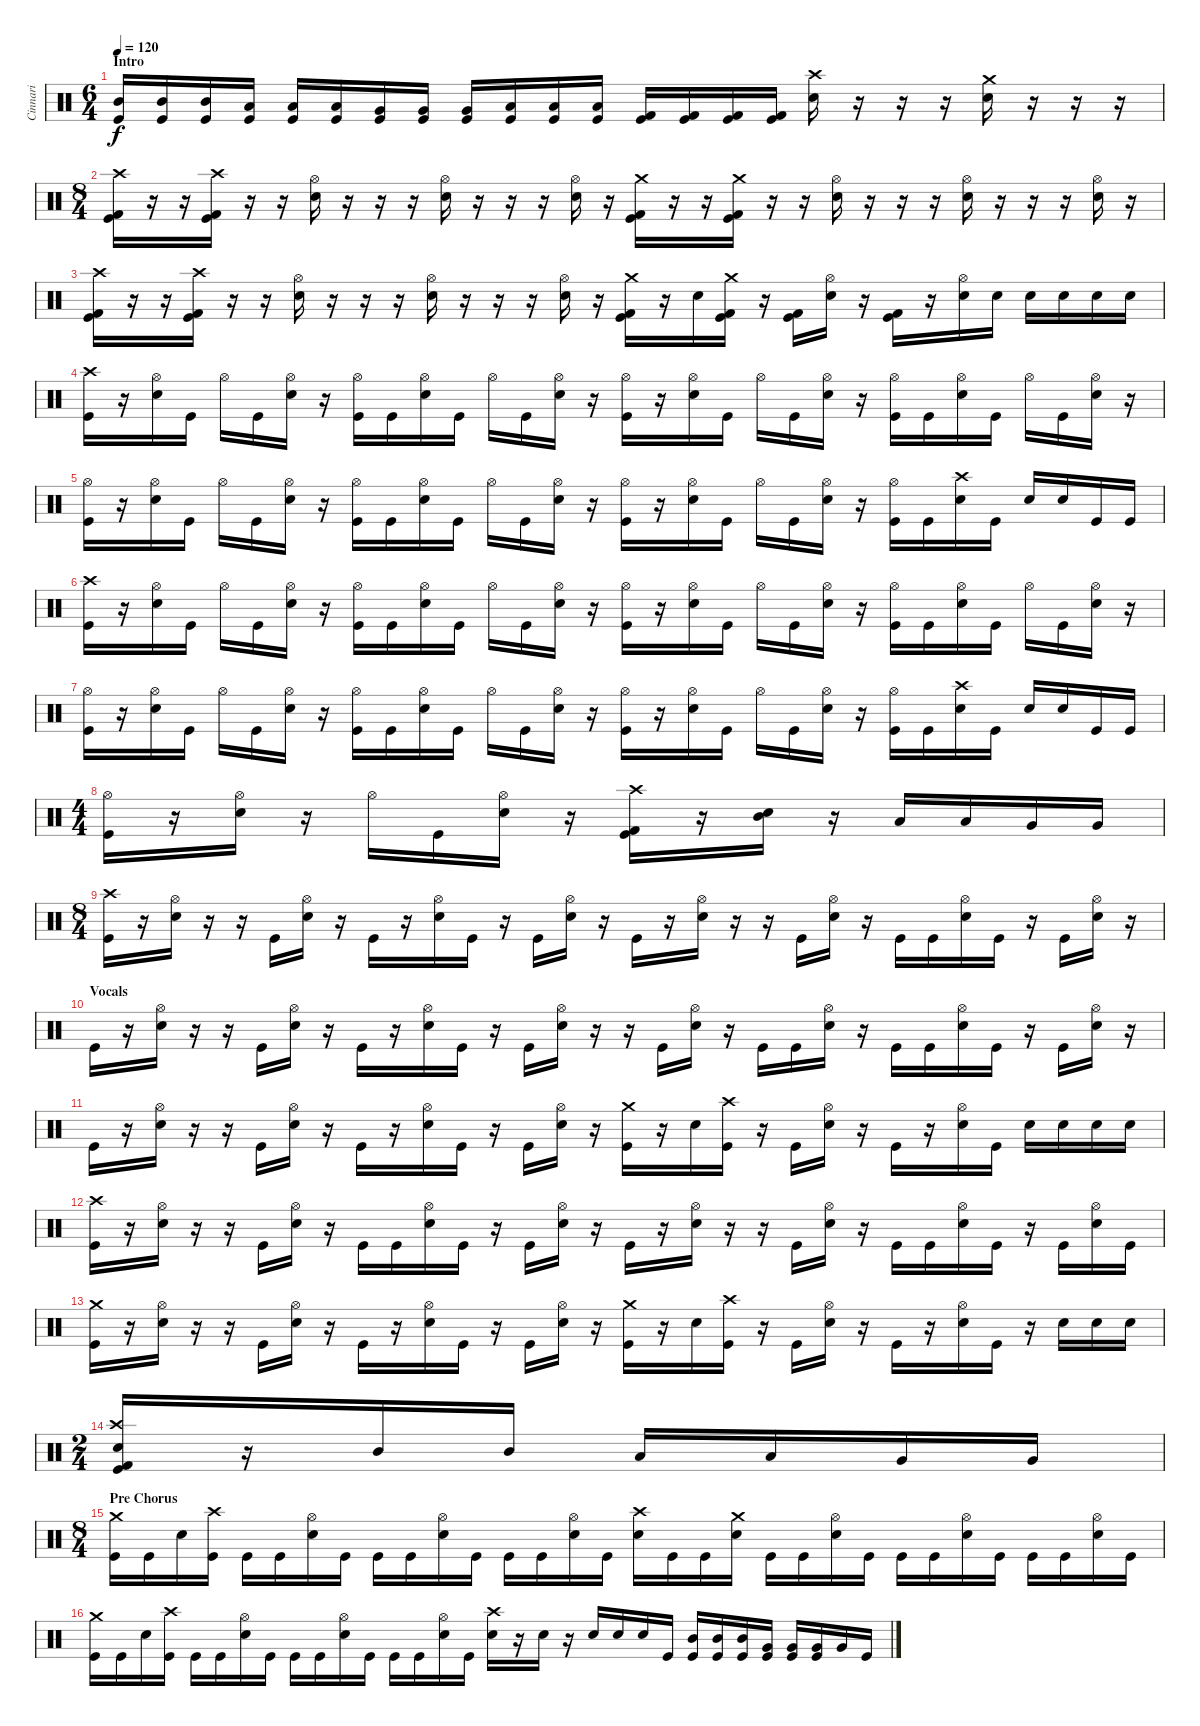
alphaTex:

\track ("Cinnari" "Cinnari") {instrument percussion}
\staff {score}
\articulation defaults
\ts (6 4)
\section ("" "Intro")
\tempo 120
\clef neutral
\ks c
("Mid Tom (hit)" "Kick (hit)").16{dy f} ("Mid Tom (hit)" "Kick (hit)").16 ("Mid Tom (hit)" "Kick (hit)").16 ("Low Tom (hit)" "Kick (hit)").16 ("Low Tom (hit)" "Kick (hit)").16 ("Low Tom (hit)" "Kick (hit)").16 ("Very Low Tom (hit)" "Kick (hit)").16 ("Very Low Tom (hit)" "Kick (hit)").16 ("Very Low Tom (hit)" "Kick (hit)").16 ("Low Floor Tom (hit)" "Kick (hit)").16 ("Low Floor Tom (hit)" "Kick (hit)").16 ("Low Floor Tom (hit)" "Kick (hit)").16 ("Kick (hit) 2" "Kick (hit)").16 ("Kick (hit) 2" "Kick (hit)").16 ("Kick (hit) 2" "Kick (hit)").16 ("Kick (hit) 2" "Kick (hit)").16 ("Crash high (hit)" "Electric Snare (hit)").16 r.16 r.16 r.16 ("Crash medium (hit)" "Electric Snare (hit)").16 r.16 r.16 r.16 |
\ts (8 4)
("Crash high (hit)" "Kick (hit) 2" "Kick (hit)").16 r.16 r.16 ("Crash high (hit)" "Kick (hit) 2" "Kick (hit)").16 r.16 r.16 ("Hi-Hat (open)" "Electric Snare (hit)").16 r.16 r.16 r.16 ("Hi-Hat (open)" "Electric Snare (hit)").16 r.16 r.16 r.16 ("Hi-Hat (open)" "Electric Snare (hit)").16 r.16 ("Crash medium (hit)" "Kick (hit) 2" "Kick (hit)").16 r.16 r.16 ("Crash medium (hit)" "Kick (hit) 2" "Kick (hit)").16 r.16 r.16 ("Hi-Hat (open)" "Electric Snare (hit)").16 r.16 r.16 r.16 ("Hi-Hat (open)" "Electric Snare (hit)").16 r.16 r.16 r.16 ("Hi-Hat (open)" "Electric Snare (hit)").16 r.16 |
("Crash high (hit)" "Kick (hit) 2" "Kick (hit)").16 r.16 r.16 ("Crash high (hit)" "Kick (hit) 2" "Kick (hit)").16 r.16 r.16 ("Hi-Hat (open)" "Electric Snare (hit)").16 r.16 r.16 r.16 ("Hi-Hat (open)" "Electric Snare (hit)").16 r.16 r.16 r.16 ("Hi-Hat (open)" "Electric Snare (hit)").16 r.16 ("Crash medium (hit)" "Kick (hit) 2" "Kick (hit)").16 r.16 "Electric Snare (hit)".16 ("Crash medium (hit)" "Kick (hit) 2" "Kick (hit)").16 r.16 ("Kick (hit) 2" "Kick (hit)").16 ("Hi-Hat (open)" "Electric Snare (hit)").16 r.16 ("Kick (hit) 2" "Kick (hit)").16 r.16 ("Hi-Hat (open)" "Electric Snare (hit)").16 "Electric Snare (hit)".16 "Electric Snare (hit)".16 "Electric Snare (hit)".16 "Electric Snare (hit)".16 "Electric Snare (hit)".16 |
("Crash high (hit)" "Kick (hit)").16 r.16 ("Hi-Hat (open)" "Electric Snare (hit)").16 "Kick (hit)".16 "Hi-Hat (open)".16 "Kick (hit)".16 ("Hi-Hat (open)" "Electric Snare (hit)").16 r.16 ("Hi-Hat (open)" "Kick (hit)").16 "Kick (hit)".16 ("Hi-Hat (open)" "Electric Snare (hit)").16 "Kick (hit)".16 "Hi-Hat (open)".16 "Kick (hit)".16 ("Hi-Hat (open)" "Electric Snare (hit)").16 r.16 ("Hi-Hat (open)" "Kick (hit)").16 r.16 ("Hi-Hat (open)" "Electric Snare (hit)").16 "Kick (hit)".16 "Hi-Hat (open)".16 "Kick (hit)".16 ("Hi-Hat (open)" "Electric Snare (hit)").16 r.16 ("Hi-Hat (open)" "Kick (hit)").16 "Kick (hit)".16 ("Hi-Hat (open)" "Electric Snare (hit)").16 "Kick (hit)".16 "Hi-Hat (open)".16 "Kick (hit)".16 ("Hi-Hat (open)" "Electric Snare (hit)").16 r.16 |
("Hi-Hat (open)" "Kick (hit)").16 r.16 ("Hi-Hat (open)" "Electric Snare (hit)").16 "Kick (hit)".16 "Hi-Hat (open)".16 "Kick (hit)".16 ("Hi-Hat (open)" "Electric Snare (hit)").16 r.16 ("Hi-Hat (open)" "Kick (hit)").16 "Kick (hit)".16 ("Hi-Hat (open)" "Electric Snare (hit)").16 "Kick (hit)".16 "Hi-Hat (open)".16 "Kick (hit)".16 ("Hi-Hat (open)" "Electric Snare (hit)").16 r.16 ("Hi-Hat (open)" "Kick (hit)").16 r.16 ("Hi-Hat (open)" "Electric Snare (hit)").16 "Kick (hit)".16 "Hi-Hat (open)".16 "Kick (hit)".16 ("Hi-Hat (open)" "Electric Snare (hit)").16 r.16 ("Hi-Hat (open)" "Kick (hit)").16 "Kick (hit)".16 ("Crash high (hit)" "Electric Snare (hit)").16 "Kick (hit)".16 "Electric Snare (hit)".16 "Electric Snare (hit)".16 "Kick (hit)".16 "Kick (hit)".16 |
("Crash high (hit)" "Kick (hit)").16 r.16 ("Hi-Hat (open)" "Electric Snare (hit)").16 "Kick (hit)".16 "Hi-Hat (open)".16 "Kick (hit)".16 ("Hi-Hat (open)" "Electric Snare (hit)").16 r.16 ("Hi-Hat (open)" "Kick (hit)").16 "Kick (hit)".16 ("Hi-Hat (open)" "Electric Snare (hit)").16 "Kick (hit)".16 "Hi-Hat (open)".16 "Kick (hit)".16 ("Hi-Hat (open)" "Electric Snare (hit)").16 r.16 ("Hi-Hat (open)" "Kick (hit)").16 r.16 ("Hi-Hat (open)" "Electric Snare (hit)").16 "Kick (hit)".16 "Hi-Hat (open)".16 "Kick (hit)".16 ("Hi-Hat (open)" "Electric Snare (hit)").16 r.16 ("Hi-Hat (open)" "Kick (hit)").16 "Kick (hit)".16 ("Hi-Hat (open)" "Electric Snare (hit)").16 "Kick (hit)".16 "Hi-Hat (open)".16 "Kick (hit)".16 ("Hi-Hat (open)" "Electric Snare (hit)").16 r.16 |
("Hi-Hat (open)" "Kick (hit)").16 r.16 ("Hi-Hat (open)" "Electric Snare (hit)").16 "Kick (hit)".16 "Hi-Hat (open)".16 "Kick (hit)".16 ("Hi-Hat (open)" "Electric Snare (hit)").16 r.16 ("Hi-Hat (open)" "Kick (hit)").16 "Kick (hit)".16 ("Hi-Hat (open)" "Electric Snare (hit)").16 "Kick (hit)".16 "Hi-Hat (open)".16 "Kick (hit)".16 ("Hi-Hat (open)" "Electric Snare (hit)").16 r.16 ("Hi-Hat (open)" "Kick (hit)").16 r.16 ("Hi-Hat (open)" "Electric Snare (hit)").16 "Kick (hit)".16 "Hi-Hat (open)".16 "Kick (hit)".16 ("Hi-Hat (open)" "Electric Snare (hit)").16 r.16 ("Hi-Hat (open)" "Kick (hit)").16 "Kick (hit)".16 ("Crash high (hit)" "Electric Snare (hit)").16 "Kick (hit)".16 "Electric Snare (hit)".16 "Electric Snare (hit)".16 "Kick (hit)".16 "Kick (hit)".16 |
\ts (4 4)
("Hi-Hat (open)" "Kick (hit)").16 r.16 ("Hi-Hat (open)" "Electric Snare (hit)").16 r.16 "Hi-Hat (open)".16 "Kick (hit)".16 ("Hi-Hat (open)" "Electric Snare (hit)").16 r.16 ("Crash high (hit)" "Kick (hit) 2" "Kick (hit)").16 r.16 ("Mid Tom (hit)" "Electric Snare (hit)").16 r.16 "Low Tom (hit)".16 "Low Tom (hit)".16 "Very Low Tom (hit)".16 "Very Low Tom (hit)".16 |
\ts (8 4)
("Crash high (hit)" "Kick (hit)").16 r.16 ("Hi-Hat (open)" "Electric Snare (hit)").16 r.16 r.16 "Kick (hit)".16 ("Hi-Hat (open)" "Electric Snare (hit)").16 r.16 "Kick (hit)".16 r.16 ("Hi-Hat (open)" "Electric Snare (hit)").16 "Kick (hit)".16 r.16 "Kick (hit)".16 ("Hi-Hat (open)" "Electric Snare (hit)").16 r.16 "Kick (hit)".16 r.16 ("Hi-Hat (open)" "Electric Snare (hit)").16 r.16 r.16 "Kick (hit)".16 ("Hi-Hat (open)" "Electric Snare (hit)").16 r.16 "Kick (hit)".16 "Kick (hit)".16 ("Hi-Hat (open)" "Electric Snare (hit)").16 "Kick (hit)".16 r.16 "Kick (hit)".16 ("Hi-Hat (open)" "Electric Snare (hit)").16 r.16 |
\section ("" "Vocals")
"Kick (hit)".16 r.16 ("Hi-Hat (open)" "Electric Snare (hit)").16 r.16 r.16 "Kick (hit)".16 ("Hi-Hat (open)" "Electric Snare (hit)").16 r.16 "Kick (hit)".16 r.16 ("Hi-Hat (open)" "Electric Snare (hit)").16 "Kick (hit)".16 r.16 "Kick (hit)".16 ("Hi-Hat (open)" "Electric Snare (hit)").16 r.16 r.16 "Kick (hit)".16 ("Hi-Hat (open)" "Electric Snare (hit)").16 r.16 "Kick (hit)".16 "Kick (hit)".16 ("Hi-Hat (open)" "Electric Snare (hit)").16 r.16 "Kick (hit)".16 "Kick (hit)".16 ("Hi-Hat (open)" "Electric Snare (hit)").16 "Kick (hit)".16 r.16 "Kick (hit)".16 ("Hi-Hat (open)" "Electric Snare (hit)").16 r.16 |
"Kick (hit)".16 r.16 ("Hi-Hat (open)" "Electric Snare (hit)").16 r.16 r.16 "Kick (hit)".16 ("Hi-Hat (open)" "Electric Snare (hit)").16 r.16 "Kick (hit)".16 r.16 ("Hi-Hat (open)" "Electric Snare (hit)").16 "Kick (hit)".16 r.16 "Kick (hit)".16 ("Hi-Hat (open)" "Electric Snare (hit)").16 r.16 ("Crash medium (hit)" "Kick (hit)").16 r.16 "Electric Snare (hit)".16 ("Crash high (hit)" "Kick (hit)").16 r.16 "Kick (hit)".16 ("Hi-Hat (open)" "Electric Snare (hit)").16 r.16 "Kick (hit)".16 r.16 ("Hi-Hat (open)" "Electric Snare (hit)").16 "Kick (hit)".16 "Electric Snare (hit)".16 "Electric Snare (hit)".16 "Electric Snare (hit)".16 "Electric Snare (hit)".16 |
("Crash high (hit)" "Kick (hit)").16 r.16 ("Hi-Hat (open)" "Electric Snare (hit)").16 r.16 r.16 "Kick (hit)".16 ("Hi-Hat (open)" "Electric Snare (hit)").16 r.16 "Kick (hit)".16 "Kick (hit)".16 ("Hi-Hat (open)" "Electric Snare (hit)").16 "Kick (hit)".16 r.16 "Kick (hit)".16 ("Hi-Hat (open)" "Electric Snare (hit)").16 r.16 "Kick (hit)".16 r.16 ("Hi-Hat (open)" "Electric Snare (hit)").16 r.16 r.16 "Kick (hit)".16 ("Hi-Hat (open)" "Electric Snare (hit)").16 r.16 "Kick (hit)".16 "Kick (hit)".16 ("Hi-Hat (open)" "Electric Snare (hit)").16 "Kick (hit)".16 r.16 "Kick (hit)".16 ("Hi-Hat (open)" "Electric Snare (hit)").16 "Kick (hit)".16 |
("Crash medium (hit)" "Kick (hit)").16 r.16 ("Hi-Hat (open)" "Electric Snare (hit)").16 r.16 r.16 "Kick (hit)".16 ("Hi-Hat (open)" "Electric Snare (hit)").16 r.16 "Kick (hit)".16 r.16 ("Hi-Hat (open)" "Electric Snare (hit)").16 "Kick (hit)".16 r.16 "Kick (hit)".16 ("Hi-Hat (open)" "Electric Snare (hit)").16 r.16 ("Crash medium (hit)" "Kick (hit)").16 r.16 "Electric Snare (hit)".16 ("Crash high (hit)" "Kick (hit)").16 r.16 "Kick (hit)".16 ("Hi-Hat (open)" "Electric Snare (hit)").16 r.16 "Kick (hit)".16 r.16 ("Hi-Hat (open)" "Electric Snare (hit)").16 "Kick (hit)".16 r.16 "Electric Snare (hit)".16 "Electric Snare (hit)".16 "Electric Snare (hit)".16 |
\ts (2 4)
("Crash high (hit)" "Kick (hit) 2" "Electric Snare (hit)" "Kick (hit)").16 r.16 "Mid Tom (hit)".16 "Mid Tom (hit)".16 "Low Tom (hit)".16 "Low Tom (hit)".16 "Very Low Tom (hit)".16 "Very Low Tom (hit)".16 |
\ts (8 4)
\section ("" "Pre Chorus")
("Crash medium (hit)" "Kick (hit)").16 "Kick (hit)".16 "Electric Snare (hit)".16 ("Crash high (hit)" "Kick (hit)").16 "Kick (hit)".16 "Kick (hit)".16 ("Hi-Hat (open)" "Electric Snare (hit)").16 "Kick (hit)".16 "Kick (hit)".16 "Kick (hit)".16 ("Hi-Hat (open)" "Electric Snare (hit)").16 "Kick (hit)".16 "Kick (hit)".16 "Kick (hit)".16 ("Hi-Hat (open)" "Electric Snare (hit)").16 "Kick (hit)".16 ("Crash high (hit)" "Electric Snare (hit)").16 "Kick (hit)".16 "Kick (hit)".16 ("Crash medium (hit)" "Electric Snare (hit)").16 "Kick (hit)".16 "Kick (hit)".16 ("Hi-Hat (open)" "Electric Snare (hit)").16 "Kick (hit)".16 "Kick (hit)".16 "Kick (hit)".16 ("Hi-Hat (open)" "Electric Snare (hit)").16 "Kick (hit)".16 "Kick (hit)".16 "Kick (hit)".16 ("Hi-Hat (open)" "Electric Snare (hit)").16 "Kick (hit)".16 |
("Crash medium (hit)" "Kick (hit)").16 "Kick (hit)".16 "Electric Snare (hit)".16 ("Crash high (hit)" "Kick (hit)").16 "Kick (hit)".16 "Kick (hit)".16 ("Hi-Hat (open)" "Electric Snare (hit)").16 "Kick (hit)".16 "Kick (hit)".16 "Kick (hit)".16 ("Hi-Hat (open)" "Electric Snare (hit)").16 "Kick (hit)".16 "Kick (hit)".16 "Kick (hit)".16 ("Hi-Hat (open)" "Electric Snare (hit)").16 "Kick (hit)".16 ("Crash high (hit)" "Electric Snare (hit)").16 r.16 "Electric Snare (hit)".16 r.16 "Electric Snare (hit)".16 "Electric Snare (hit)".16 "Electric Snare (hit)".16 "Kick (hit)".16 ("Mid Tom (hit)" "Kick (hit)").16 ("Mid Tom (hit)" "Kick (hit)").16 ("Mid Tom (hit)" "Kick (hit)").16 ("Very Low Tom (hit)" "Kick (hit)").16 ("Very Low Tom (hit)" "Kick (hit)").16 ("Very Low Tom (hit)" "Kick (hit)").16 "Very Low Tom (hit)".16 "Kick (hit)".16
